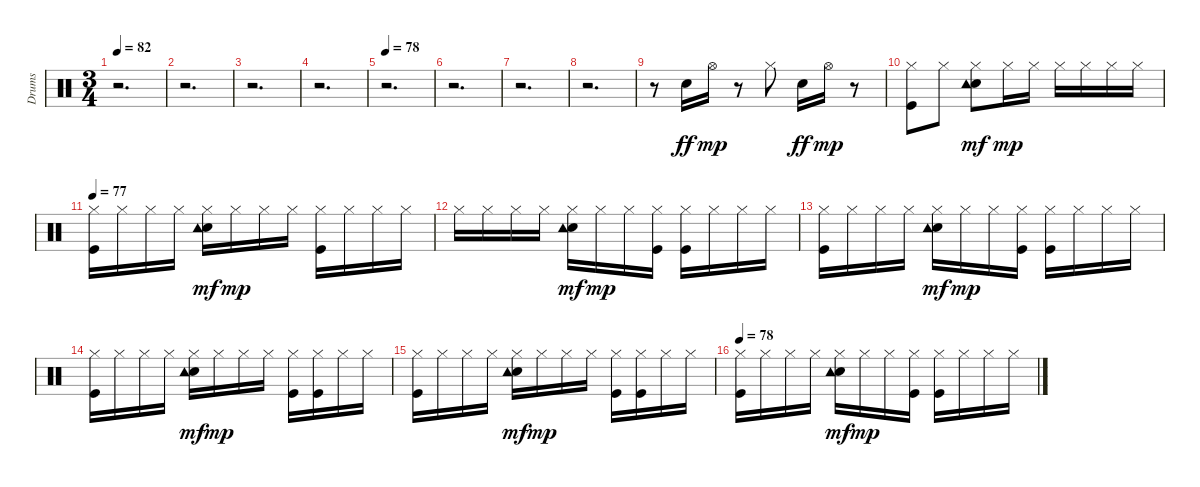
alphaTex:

\track ("Drums" "Drums") {instrument percussion}
\staff {score}
\articulation defaults
\ts (3 4)
\tempo 82
\clef neutral
\ks c
r.2{d dy mf} |
r.2{d} |
r.2{d} |
r.2{d} |
\tempo 78
r.2{d} |
r.2{d} |
r.2{d} |
r.2{d} |
r.8 "Electric Snare (hit)".16{dy ff} "Hi-Hat (open)".16{dy mp} r.8 "Hi-Hat (closed)".8 "Electric Snare (hit)".16{dy ff} "Hi-Hat (open)".16{dy mp} r.8 |
("Kick (hit)" "Hi-Hat (closed)").8 "Hi-Hat (closed)".8 ("Electric Snare (hit)" "Hi-Hat (closed)" "Tambourine (hit)").8{dy mf} "Hi-Hat (closed)".16{dy mp} "Hi-Hat (closed)".16 "Hi-Hat (closed)".16 "Hi-Hat (closed)".16 "Hi-Hat (closed)".16 "Hi-Hat (closed)".16 |
\tempo 77
("Kick (hit)" "Hi-Hat (closed)").16 "Hi-Hat (closed)".16 "Hi-Hat (closed)".16 "Hi-Hat (closed)".16 ("Electric Snare (hit)" "Hi-Hat (closed)" "Tambourine (hit)").16{dy mf} "Hi-Hat (closed)".16{dy mp} "Hi-Hat (closed)".16 "Hi-Hat (closed)".16 ("Kick (hit)" "Hi-Hat (closed)").16 "Hi-Hat (closed)".16 "Hi-Hat (closed)".16 "Hi-Hat (closed)".16 |
"Hi-Hat (closed)".16 "Hi-Hat (closed)".16 "Hi-Hat (closed)".16 "Hi-Hat (closed)".16 ("Electric Snare (hit)" "Hi-Hat (closed)" "Tambourine (hit)").16{dy mf} "Hi-Hat (closed)".16{dy mp} "Hi-Hat (closed)".16 ("Kick (hit)" "Hi-Hat (closed)").16 ("Kick (hit)" "Hi-Hat (closed)").16 "Hi-Hat (closed)".16 "Hi-Hat (closed)".16 "Hi-Hat (closed)".16 |
("Kick (hit)" "Hi-Hat (closed)").16 "Hi-Hat (closed)".16 "Hi-Hat (closed)".16 "Hi-Hat (closed)".16 ("Electric Snare (hit)" "Hi-Hat (closed)" "Tambourine (hit)").16{dy mf} "Hi-Hat (closed)".16{dy mp} "Hi-Hat (closed)".16 ("Kick (hit)" "Hi-Hat (closed)").16 ("Kick (hit)" "Hi-Hat (closed)").16 "Hi-Hat (closed)".16 "Hi-Hat (closed)".16 "Hi-Hat (closed)".16 |
("Kick (hit)" "Hi-Hat (closed)").16 "Hi-Hat (closed)".16 "Hi-Hat (closed)".16 "Hi-Hat (closed)".16 ("Electric Snare (hit)" "Hi-Hat (closed)" "Tambourine (hit)").16{dy mf} "Hi-Hat (closed)".16{dy mp} "Hi-Hat (closed)".16 "Hi-Hat (closed)".16 ("Kick (hit)" "Hi-Hat (closed)").16 ("Kick (hit)" "Hi-Hat (closed)").16 "Hi-Hat (closed)".16 "Hi-Hat (closed)".16 |
("Kick (hit)" "Hi-Hat (closed)").16 "Hi-Hat (closed)".16 "Hi-Hat (closed)".16 "Hi-Hat (closed)".16 ("Electric Snare (hit)" "Hi-Hat (closed)" "Tambourine (hit)").16{dy mf} "Hi-Hat (closed)".16{dy mp} "Hi-Hat (closed)".16 "Hi-Hat (closed)".16 ("Kick (hit)" "Hi-Hat (closed)").16 ("Kick (hit)" "Hi-Hat (closed)").16 "Hi-Hat (closed)".16 "Hi-Hat (closed)".16 |
\tempo 78
("Kick (hit)" "Hi-Hat (closed)").16 "Hi-Hat (closed)".16 "Hi-Hat (closed)".16 "Hi-Hat (closed)".16 ("Electric Snare (hit)" "Hi-Hat (closed)" "Tambourine (hit)").16{dy mf} "Hi-Hat (closed)".16{dy mp} "Hi-Hat (closed)".16 ("Kick (hit)" "Hi-Hat (closed)").16 ("Kick (hit)" "Hi-Hat (closed)").16 "Hi-Hat (closed)".16 "Hi-Hat (closed)".16 "Hi-Hat (closed)".16
